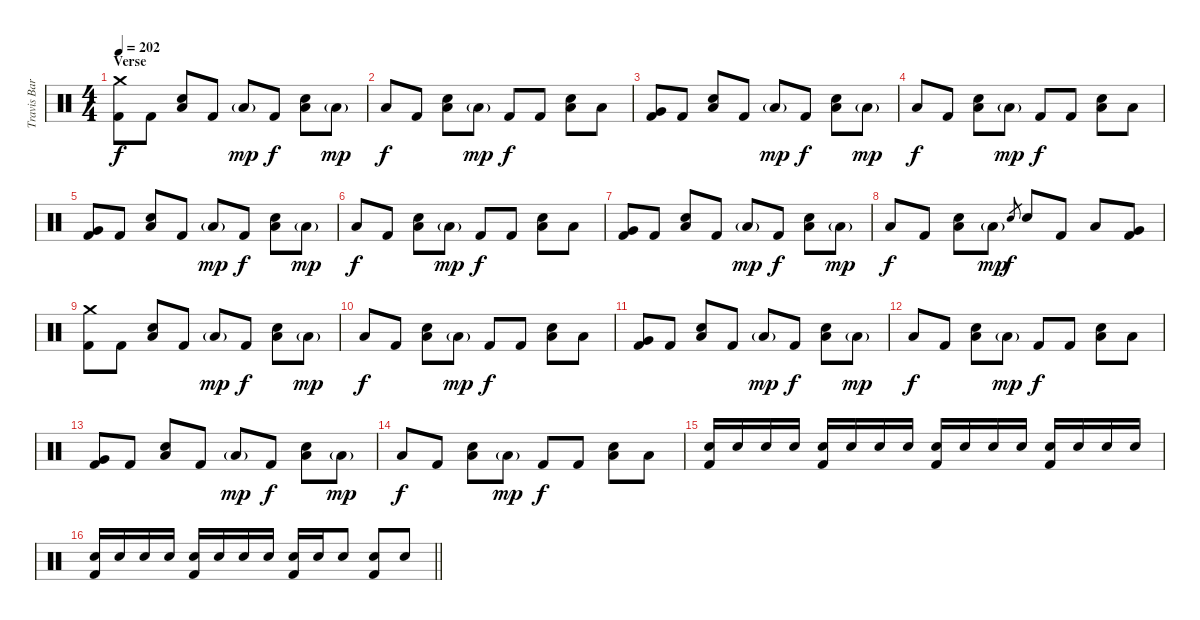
\track ("Travis Barker - Drums" "Travis Bar") {instrument percussion}
\staff {score}
\articulation defaults
\ts (4 4)
\section ("" "Verse")
\tempo 202
\clef neutral
\ks c
("Crash medium (hit)" "Kick (hit) 2").8{dy f} "Kick (hit) 2".8 ("Low Floor Tom (hit)" "Electric Snare (hit)").8 "Kick (hit) 2".8 "Low Tom (hit)"{g}.8{dy mp} "Kick (hit) 2".8{dy f} ("Low Floor Tom (hit)" "Electric Snare (hit)").8 "Low Floor Tom (hit)"{g}.8{dy mp} |
"Low Floor Tom (hit)".8{dy f} "Kick (hit) 2".8 ("Low Floor Tom (hit)" "Electric Snare (hit)").8 "Low Tom (hit)"{g}.8{dy mp} "Kick (hit) 2".8{dy f} "Kick (hit) 2".8 ("Low Floor Tom (hit)" "Electric Snare (hit)").8 "Low Tom (hit)".8 |
("Very Low Tom (hit)" "Kick (hit) 2").8 "Kick (hit) 2".8 ("Low Floor Tom (hit)" "Electric Snare (hit)").8 "Kick (hit) 2".8 "Low Tom (hit)"{g}.8{dy mp} "Kick (hit) 2".8{dy f} ("Low Floor Tom (hit)" "Electric Snare (hit)").8 "Low Floor Tom (hit)"{g}.8{dy mp} |
"Low Floor Tom (hit)".8{dy f} "Kick (hit) 2".8 ("Low Floor Tom (hit)" "Electric Snare (hit)").8 "Low Tom (hit)"{g}.8{dy mp} "Kick (hit) 2".8{dy f} "Kick (hit) 2".8 ("Low Floor Tom (hit)" "Electric Snare (hit)").8 "Low Tom (hit)".8 |
("Very Low Tom (hit)" "Kick (hit) 2").8 "Kick (hit) 2".8 ("Low Floor Tom (hit)" "Electric Snare (hit)").8 "Kick (hit) 2".8 "Low Tom (hit)"{g}.8{dy mp} "Kick (hit) 2".8{dy f} ("Low Floor Tom (hit)" "Electric Snare (hit)").8 "Low Floor Tom (hit)"{g}.8{dy mp} |
"Low Floor Tom (hit)".8{dy f} "Kick (hit) 2".8 ("Low Floor Tom (hit)" "Electric Snare (hit)").8 "Low Tom (hit)"{g}.8{dy mp} "Kick (hit) 2".8{dy f} "Kick (hit) 2".8 ("Low Floor Tom (hit)" "Electric Snare (hit)").8 "Low Tom (hit)".8 |
("Very Low Tom (hit)" "Kick (hit) 2").8 "Kick (hit) 2".8 ("Low Floor Tom (hit)" "Electric Snare (hit)").8 "Kick (hit) 2".8 "Low Tom (hit)"{g}.8{dy mp} "Kick (hit) 2".8{dy f} ("Low Floor Tom (hit)" "Electric Snare (hit)").8 "Low Floor Tom (hit)"{g}.8{dy mp} |
"Low Floor Tom (hit)".8{dy f} "Kick (hit) 2".8 ("Low Floor Tom (hit)" "Electric Snare (hit)").8 "Low Tom (hit)"{g}.8{dy mp} "Electric Snare (hit)".8{gr dy f} "Electric Snare (hit)".8 "Kick (hit) 2".8 "Low Tom (hit)".8 ("Very Low Tom (hit)" "Kick (hit) 2").8 |
("Crash medium (hit)" "Kick (hit) 2").8 "Kick (hit) 2".8 ("Low Floor Tom (hit)" "Electric Snare (hit)").8 "Kick (hit) 2".8 "Low Tom (hit)"{g}.8{dy mp} "Kick (hit) 2".8{dy f} ("Low Floor Tom (hit)" "Electric Snare (hit)").8 "Low Floor Tom (hit)"{g}.8{dy mp} |
"Low Floor Tom (hit)".8{dy f} "Kick (hit) 2".8 ("Low Floor Tom (hit)" "Electric Snare (hit)").8 "Low Tom (hit)"{g}.8{dy mp} "Kick (hit) 2".8{dy f} "Kick (hit) 2".8 ("Low Floor Tom (hit)" "Electric Snare (hit)").8 "Low Tom (hit)".8 |
("Very Low Tom (hit)" "Kick (hit) 2").8 "Kick (hit) 2".8 ("Low Floor Tom (hit)" "Electric Snare (hit)").8 "Kick (hit) 2".8 "Low Tom (hit)"{g}.8{dy mp} "Kick (hit) 2".8{dy f} ("Low Floor Tom (hit)" "Electric Snare (hit)").8 "Low Floor Tom (hit)"{g}.8{dy mp} |
"Low Floor Tom (hit)".8{dy f} "Kick (hit) 2".8 ("Low Floor Tom (hit)" "Electric Snare (hit)").8 "Low Tom (hit)"{g}.8{dy mp} "Kick (hit) 2".8{dy f} "Kick (hit) 2".8 ("Low Floor Tom (hit)" "Electric Snare (hit)").8 "Low Tom (hit)".8 |
("Very Low Tom (hit)" "Kick (hit) 2").8 "Kick (hit) 2".8 ("Low Floor Tom (hit)" "Electric Snare (hit)").8 "Kick (hit) 2".8 "Low Tom (hit)"{g}.8{dy mp} "Kick (hit) 2".8{dy f} ("Low Floor Tom (hit)" "Electric Snare (hit)").8 "Low Floor Tom (hit)"{g}.8{dy mp} |
"Low Floor Tom (hit)".8{dy f} "Kick (hit) 2".8 ("Low Floor Tom (hit)" "Electric Snare (hit)").8 "Low Tom (hit)"{g}.8{dy mp} "Kick (hit) 2".8{dy f} "Kick (hit) 2".8 ("Low Floor Tom (hit)" "Electric Snare (hit)").8 "Low Tom (hit)".8 |
("Electric Snare (hit)" "Kick (hit) 2").16 "Electric Snare (hit)".16{volume 8 balance 13} "Electric Snare (hit)".16{volume 11} "Electric Snare (hit)".16 ("Electric Snare (hit)" "Kick (hit) 2").16 "Electric Snare (hit)".16 "Electric Snare (hit)".16 "Electric Snare (hit)".16 ("Electric Snare (hit)" "Kick (hit) 2").16 "Electric Snare (hit)".16 "Electric Snare (hit)".16 "Electric Snare (hit)".16 ("Electric Snare (hit)" "Kick (hit) 2").16 "Electric Snare (hit)".16 "Electric Snare (hit)".16 "Electric Snare (hit)".16 |
\barLineRight lightlight
("Electric Snare (hit)" "Kick (hit) 2").16 "Electric Snare (hit)".16 "Electric Snare (hit)".16{volume 12 balance 2} "Electric Snare (hit)".16 ("Electric Snare (hit)" "Kick (hit) 2").16 "Electric Snare (hit)".16 "Electric Snare (hit)".16 "Electric Snare (hit)".16 ("Electric Snare (hit)" "Kick (hit) 2").16 "Electric Snare (hit)".16 "Electric Snare (hit)".8 ("Electric Snare (hit)" "Kick (hit) 2").8 "Electric Snare (hit)".8{volume 12 balance 8}
